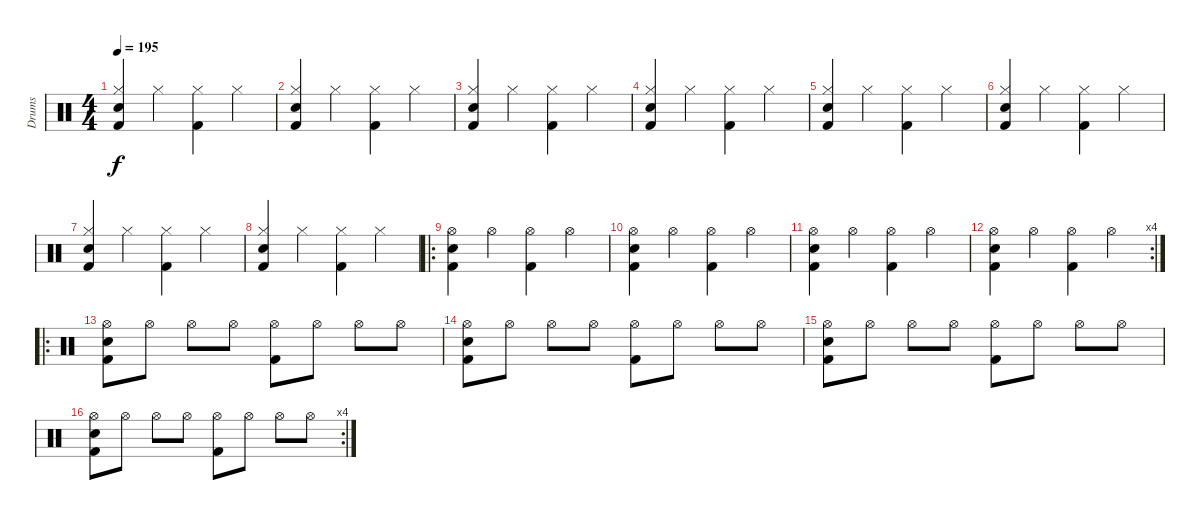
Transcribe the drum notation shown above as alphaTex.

\track ("Drums" "Drums") {instrument percussion}
\staff {score}
\articulation defaults
\ts (4 4)
\tempo 195
\clef neutral
\ks c
("Electric Snare (hit)" "Hi-Hat (closed)" "Kick (hit) 2").4{dy f} "Hi-Hat (closed)".4 ("Hi-Hat (closed)" "Kick (hit) 2").4 "Hi-Hat (closed)".4 |
("Electric Snare (hit)" "Hi-Hat (closed)" "Kick (hit) 2").4 "Hi-Hat (closed)".4 ("Hi-Hat (closed)" "Kick (hit) 2").4 "Hi-Hat (closed)".4 |
("Electric Snare (hit)" "Hi-Hat (closed)" "Kick (hit) 2").4 "Hi-Hat (closed)".4 ("Hi-Hat (closed)" "Kick (hit) 2").4 "Hi-Hat (closed)".4 |
("Electric Snare (hit)" "Hi-Hat (closed)" "Kick (hit) 2").4 "Hi-Hat (closed)".4 ("Hi-Hat (closed)" "Kick (hit) 2").4 "Hi-Hat (closed)".4 |
("Electric Snare (hit)" "Hi-Hat (closed)" "Kick (hit) 2").4 "Hi-Hat (closed)".4 ("Hi-Hat (closed)" "Kick (hit) 2").4 "Hi-Hat (closed)".4 |
("Electric Snare (hit)" "Hi-Hat (closed)" "Kick (hit) 2").4 "Hi-Hat (closed)".4 ("Hi-Hat (closed)" "Kick (hit) 2").4 "Hi-Hat (closed)".4 |
("Electric Snare (hit)" "Hi-Hat (closed)" "Kick (hit) 2").4 "Hi-Hat (closed)".4 ("Hi-Hat (closed)" "Kick (hit) 2").4 "Hi-Hat (closed)".4 |
("Electric Snare (hit)" "Hi-Hat (closed)" "Kick (hit) 2").4 "Hi-Hat (closed)".4 ("Hi-Hat (closed)" "Kick (hit) 2").4 "Hi-Hat (closed)".4 |
\ro
("Electric Snare (hit)" "Hi-Hat (open)" "Kick (hit) 2").4 "Hi-Hat (open)".4 ("Hi-Hat (open)" "Kick (hit) 2").4 "Hi-Hat (open)".4 |
("Electric Snare (hit)" "Hi-Hat (open)" "Kick (hit) 2").4 "Hi-Hat (open)".4 ("Hi-Hat (open)" "Kick (hit) 2").4 "Hi-Hat (open)".4 |
("Electric Snare (hit)" "Hi-Hat (open)" "Kick (hit) 2").4 "Hi-Hat (open)".4 ("Hi-Hat (open)" "Kick (hit) 2").4 "Hi-Hat (open)".4 |
\rc 4
("Electric Snare (hit)" "Hi-Hat (open)" "Kick (hit) 2").4 "Hi-Hat (open)".4 ("Hi-Hat (open)" "Kick (hit) 2").4 "Hi-Hat (open)".4 |
\ro
("Electric Snare (hit)" "Hi-Hat (open)" "Kick (hit) 2").8 "Hi-Hat (open)".8 "Hi-Hat (open)".8 "Hi-Hat (open)".8 ("Hi-Hat (open)" "Kick (hit) 2").8 "Hi-Hat (open)".8 "Hi-Hat (open)".8 "Hi-Hat (open)".8 |
("Electric Snare (hit)" "Hi-Hat (open)" "Kick (hit) 2").8 "Hi-Hat (open)".8 "Hi-Hat (open)".8 "Hi-Hat (open)".8 ("Hi-Hat (open)" "Kick (hit) 2").8 "Hi-Hat (open)".8 "Hi-Hat (open)".8 "Hi-Hat (open)".8 |
("Electric Snare (hit)" "Hi-Hat (open)" "Kick (hit) 2").8 "Hi-Hat (open)".8 "Hi-Hat (open)".8 "Hi-Hat (open)".8 ("Hi-Hat (open)" "Kick (hit) 2").8 "Hi-Hat (open)".8 "Hi-Hat (open)".8 "Hi-Hat (open)".8 |
\rc 4
("Electric Snare (hit)" "Hi-Hat (open)" "Kick (hit) 2").8 "Hi-Hat (open)".8 "Hi-Hat (open)".8 "Hi-Hat (open)".8 ("Hi-Hat (open)" "Kick (hit) 2").8 "Hi-Hat (open)".8 "Hi-Hat (open)".8 "Hi-Hat (open)".8
